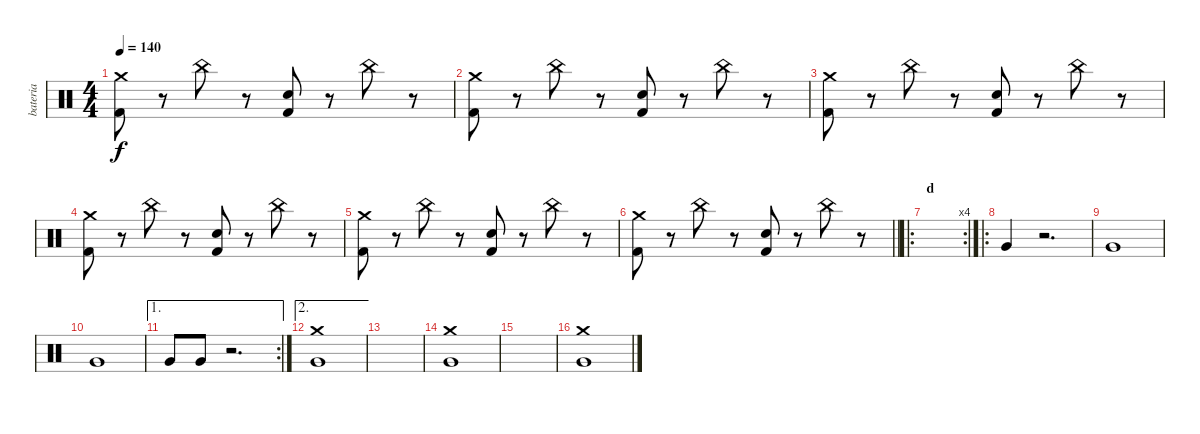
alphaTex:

\track ("bateria" "bateria") {instrument percussion}
\staff {score}
\articulation defaults
\ts (4 4)
\tempo 140
\clef neutral
\ks c
("Kick (hit) 2" "Crash medium (hit)").8{dy f} r.8 "China (hit)".8 r.8 ("Kick (hit) 2" "Electric Snare (hit)").8 r.8 "China (hit)".8 r.8 |
("Kick (hit) 2" "Crash medium (hit)").8 r.8 "China (hit)".8 r.8 ("Kick (hit) 2" "Electric Snare (hit)").8 r.8 "China (hit)".8 r.8 |
("Kick (hit) 2" "Crash medium (hit)").8 r.8 "China (hit)".8 r.8 ("Kick (hit) 2" "Electric Snare (hit)").8 r.8 "China (hit)".8 r.8 |
("Kick (hit) 2" "Crash medium (hit)").8 r.8 "China (hit)".8 r.8 ("Kick (hit) 2" "Electric Snare (hit)").8 r.8 "China (hit)".8 r.8 |
("Kick (hit) 2" "Crash medium (hit)").8 r.8 "China (hit)".8 r.8 ("Kick (hit) 2" "Electric Snare (hit)").8 r.8 "China (hit)".8 r.8 |
\barLineRight lightlight
("Kick (hit) 2" "Crash medium (hit)").8 r.8 "China (hit)".8 r.8 ("Kick (hit) 2" "Electric Snare (hit)").8 r.8 "China (hit)".8 r.8 |
\ro
\rc 4
\section ("" "d")
|
\ro "Very Low Tom (hit)".4
r.2{d} |
"Very Low Tom (hit)".1 |
"Very Low Tom (hit)".1 |
\ae 1
\rc 2 "Very Low Tom (hit)".8 "Very Low Tom (hit)".8
r.2{d} |
\ae 2
("Very Low Tom (hit)" "Crash medium (hit)").1 |
|
("Very Low Tom (hit)" "Crash medium (hit)").1 |
|
("Very Low Tom (hit)" "Crash medium (hit)").1
